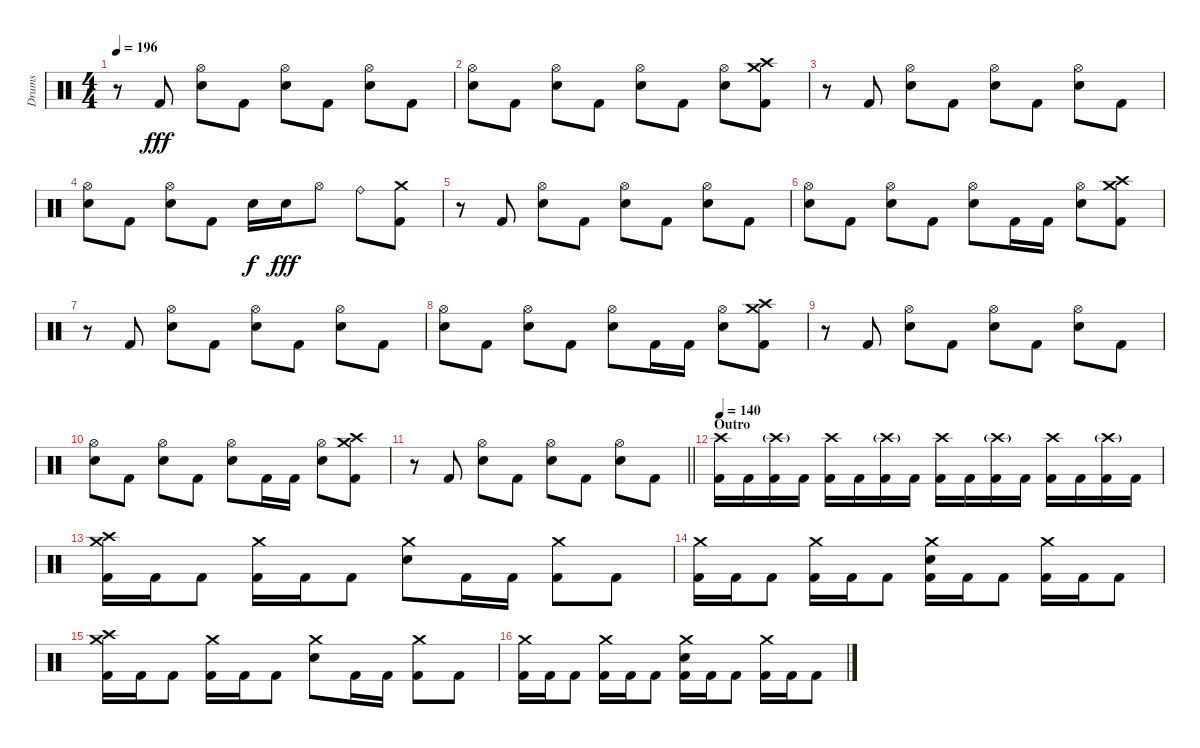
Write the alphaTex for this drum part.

\track ("Drums" "Drums") {instrument percussion}
\staff {score}
\articulation defaults
\ts (4 4)
\tempo 196
\clef neutral
\ks c
r.8{dy fff} "Kick (hit) 2".8 ("Hi-Hat (open)" "Electric Snare (hit)").8 "Kick (hit) 2".8 ("Hi-Hat (open)" "Electric Snare (hit)").8 "Kick (hit) 2".8 ("Hi-Hat (open)" "Electric Snare (hit)").8 "Kick (hit) 2".8 |
("Hi-Hat (open)" "Electric Snare (hit)").8 "Kick (hit) 2".8 ("Hi-Hat (open)" "Electric Snare (hit)").8 "Kick (hit) 2".8 ("Hi-Hat (open)" "Electric Snare (hit)").8 "Kick (hit) 2".8 ("Hi-Hat (open)" "Electric Snare (hit)").8 ("Crash medium (hit)" "Crash high (hit)" "Kick (hit) 2").8 |
r.8 "Kick (hit) 2".8 ("Hi-Hat (open)" "Electric Snare (hit)").8 "Kick (hit) 2".8 ("Hi-Hat (open)" "Electric Snare (hit)").8 "Kick (hit) 2".8 ("Hi-Hat (open)" "Electric Snare (hit)").8 "Kick (hit) 2".8 |
("Hi-Hat (open)" "Electric Snare (hit)").8 "Kick (hit) 2".8 ("Hi-Hat (open)" "Electric Snare (hit)").8 "Kick (hit) 2".8 "Electric Snare (hit)".16{dy f} "Electric Snare (hit)".16{dy fff} "Hi-Hat (open)".8 "Ride (bell)".8 ("Crash medium (hit)" "Kick (hit) 2").8 |
r.8 "Kick (hit) 2".8 ("Hi-Hat (open)" "Electric Snare (hit)").8 "Kick (hit) 2".8 ("Hi-Hat (open)" "Electric Snare (hit)").8 "Kick (hit) 2".8 ("Hi-Hat (open)" "Electric Snare (hit)").8 "Kick (hit) 2".8 |
("Hi-Hat (open)" "Electric Snare (hit)").8 "Kick (hit) 2".8 ("Hi-Hat (open)" "Electric Snare (hit)").8 "Kick (hit) 2".8 ("Hi-Hat (open)" "Electric Snare (hit)").8 "Kick (hit) 2".16 "Kick (hit) 2".16 ("Hi-Hat (open)" "Electric Snare (hit)").8 ("Crash medium (hit)" "Crash high (hit)" "Kick (hit) 2").8 |
r.8 "Kick (hit) 2".8 ("Hi-Hat (open)" "Electric Snare (hit)").8 "Kick (hit) 2".8 ("Hi-Hat (open)" "Electric Snare (hit)").8 "Kick (hit) 2".8 ("Hi-Hat (open)" "Electric Snare (hit)").8 "Kick (hit) 2".8 |
("Hi-Hat (open)" "Electric Snare (hit)").8 "Kick (hit) 2".8 ("Hi-Hat (open)" "Electric Snare (hit)").8 "Kick (hit) 2".8 ("Hi-Hat (open)" "Electric Snare (hit)").8 "Kick (hit) 2".16 "Kick (hit) 2".16 ("Hi-Hat (open)" "Electric Snare (hit)").8 ("Crash medium (hit)" "Crash high (hit)" "Kick (hit) 2").8 |
r.8 "Kick (hit) 2".8 ("Hi-Hat (open)" "Electric Snare (hit)").8 "Kick (hit) 2".8 ("Hi-Hat (open)" "Electric Snare (hit)").8 "Kick (hit) 2".8 ("Hi-Hat (open)" "Electric Snare (hit)").8 "Kick (hit) 2".8 |
("Hi-Hat (open)" "Electric Snare (hit)").8 "Kick (hit) 2".8 ("Hi-Hat (open)" "Electric Snare (hit)").8 "Kick (hit) 2".8 ("Hi-Hat (open)" "Electric Snare (hit)").8 "Kick (hit) 2".16 "Kick (hit) 2".16 ("Hi-Hat (open)" "Electric Snare (hit)").8 ("Crash medium (hit)" "Crash high (hit)" "Kick (hit) 2").8 |
\barLineRight lightlight
r.8 "Kick (hit) 2".8 ("Hi-Hat (open)" "Electric Snare (hit)").8 "Kick (hit) 2".8 ("Hi-Hat (open)" "Electric Snare (hit)").8 "Kick (hit) 2".8 ("Hi-Hat (open)" "Electric Snare (hit)").8 "Kick (hit) 2".8 |
\section ("" "Outro")
\tempo 140
("Crash high (hit)" "Kick (hit) 2").16 "Kick (hit) 2".16 ("Crash high (hit)"{g} "Kick (hit) 2").16 "Kick (hit) 2".16 ("Crash high (hit)" "Kick (hit) 2").16 "Kick (hit) 2".16 ("Crash high (hit)"{g} "Kick (hit) 2").16 "Kick (hit) 2".16 ("Crash high (hit)" "Kick (hit) 2").16 "Kick (hit) 2".16 ("Crash high (hit)"{g} "Kick (hit) 2").16 "Kick (hit) 2".16 ("Crash high (hit)" "Kick (hit) 2").16 "Kick (hit) 2".16 ("Crash high (hit)"{g} "Kick (hit) 2").16 "Kick (hit) 2".16 |
("Crash medium (hit)" "Crash high (hit)" "Kick (hit) 2").16 "Kick (hit) 2".16 "Kick (hit) 2".8 ("Crash medium (hit)" "Kick (hit) 2").16 "Kick (hit) 2".16 "Kick (hit) 2".8 ("Crash medium (hit)" "Electric Snare (hit)").8 "Kick (hit) 2".16 "Kick (hit) 2".16 ("Crash medium (hit)" "Kick (hit) 2").8 "Kick (hit) 2".8 |
("Crash medium (hit)" "Kick (hit) 2").16 "Kick (hit) 2".16 "Kick (hit) 2".8 ("Crash medium (hit)" "Kick (hit) 2").16 "Kick (hit) 2".16 "Kick (hit) 2".8 ("Crash medium (hit)" "Electric Snare (hit)" "Kick (hit) 2").16 "Kick (hit) 2".16 "Kick (hit) 2".8 ("Crash medium (hit)" "Kick (hit) 2").16 "Kick (hit) 2".16 "Kick (hit) 2".8 |
("Crash medium (hit)" "Crash high (hit)" "Kick (hit) 2").16 "Kick (hit) 2".16 "Kick (hit) 2".8 ("Crash medium (hit)" "Kick (hit) 2").16 "Kick (hit) 2".16 "Kick (hit) 2".8 ("Crash medium (hit)" "Electric Snare (hit)").8 "Kick (hit) 2".16 "Kick (hit) 2".16 ("Crash medium (hit)" "Kick (hit) 2").8 "Kick (hit) 2".8 |
("Crash medium (hit)" "Kick (hit) 2").16 "Kick (hit) 2".16 "Kick (hit) 2".8 ("Crash medium (hit)" "Kick (hit) 2").16 "Kick (hit) 2".16 "Kick (hit) 2".8 ("Crash medium (hit)" "Electric Snare (hit)" "Kick (hit) 2").16 "Kick (hit) 2".16 "Kick (hit) 2".8 ("Crash medium (hit)" "Kick (hit) 2").16 "Kick (hit) 2".16 "Kick (hit) 2".8
